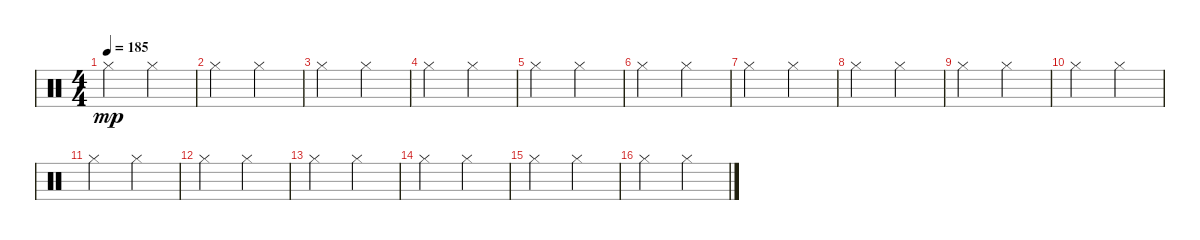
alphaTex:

\track "" {instrument percussion}
\staff {score}
\articulation defaults
\ts (4 4)
\tempo 185
\clef neutral
\ks c "Hi-Hat (closed)".2{dy mp} "Hi-Hat (closed)".2
|
"Hi-Hat (closed)".2 "Hi-Hat (closed)".2 |
"Hi-Hat (closed)".2 "Hi-Hat (closed)".2 |
"Hi-Hat (closed)".2 "Hi-Hat (closed)".2 |
"Hi-Hat (closed)".2 "Hi-Hat (closed)".2 |
"Hi-Hat (closed)".2 "Hi-Hat (closed)".2 |
"Hi-Hat (closed)".2 "Hi-Hat (closed)".2 |
"Hi-Hat (closed)".2 "Hi-Hat (closed)".2 |
"Hi-Hat (closed)".2 "Hi-Hat (closed)".2 |
"Hi-Hat (closed)".2 "Hi-Hat (closed)".2 |
"Hi-Hat (closed)".2 "Hi-Hat (closed)".2 |
"Hi-Hat (closed)".2 "Hi-Hat (closed)".2 |
"Hi-Hat (closed)".2 "Hi-Hat (closed)".2 |
"Hi-Hat (closed)".2 "Hi-Hat (closed)".2 |
"Hi-Hat (closed)".2 "Hi-Hat (closed)".2 |
"Hi-Hat (closed)".2 "Hi-Hat (closed)".2
